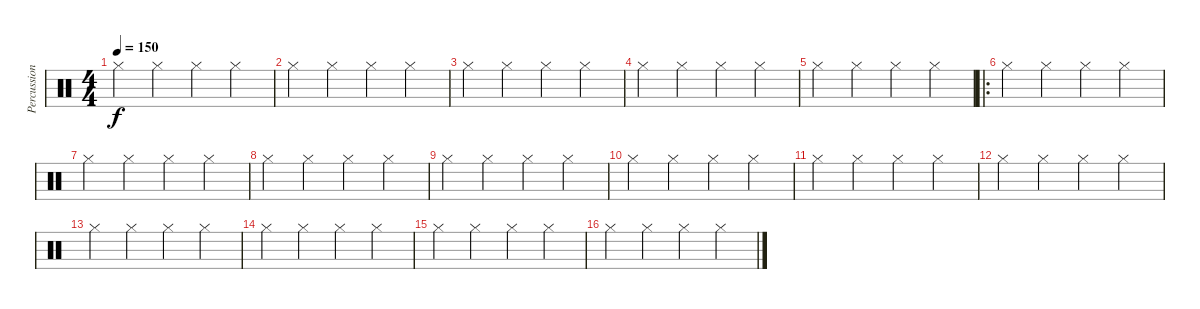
\track ("Percussioni" "Percussion") {instrument percussion}
\staff {score}
\articulation defaults
\ts (4 4)
\tempo 150
\clef neutral
\ks c "Hi-Hat (closed)".4{dy f} "Hi-Hat (closed)".4 "Hi-Hat (closed)".4 "Hi-Hat (closed)".4
|
"Hi-Hat (closed)".4 "Hi-Hat (closed)".4 "Hi-Hat (closed)".4 "Hi-Hat (closed)".4 |
"Hi-Hat (closed)".4 "Hi-Hat (closed)".4 "Hi-Hat (closed)".4 "Hi-Hat (closed)".4 |
"Hi-Hat (closed)".4 "Hi-Hat (closed)".4 "Hi-Hat (closed)".4 "Hi-Hat (closed)".4 |
"Hi-Hat (closed)".4 "Hi-Hat (closed)".4 "Hi-Hat (closed)".4 "Hi-Hat (closed)".4 |
\ro "Hi-Hat (closed)".4 "Hi-Hat (closed)".4 "Hi-Hat (closed)".4 "Hi-Hat (closed)".4
|
"Hi-Hat (closed)".4 "Hi-Hat (closed)".4 "Hi-Hat (closed)".4 "Hi-Hat (closed)".4 |
"Hi-Hat (closed)".4 "Hi-Hat (closed)".4 "Hi-Hat (closed)".4 "Hi-Hat (closed)".4 |
"Hi-Hat (closed)".4 "Hi-Hat (closed)".4 "Hi-Hat (closed)".4 "Hi-Hat (closed)".4 |
"Hi-Hat (closed)".4 "Hi-Hat (closed)".4 "Hi-Hat (closed)".4 "Hi-Hat (closed)".4 |
"Hi-Hat (closed)".4 "Hi-Hat (closed)".4 "Hi-Hat (closed)".4 "Hi-Hat (closed)".4 |
"Hi-Hat (closed)".4 "Hi-Hat (closed)".4 "Hi-Hat (closed)".4 "Hi-Hat (closed)".4 |
"Hi-Hat (closed)".4 "Hi-Hat (closed)".4 "Hi-Hat (closed)".4 "Hi-Hat (closed)".4 |
"Hi-Hat (closed)".4 "Hi-Hat (closed)".4 "Hi-Hat (closed)".4 "Hi-Hat (closed)".4 |
"Hi-Hat (closed)".4 "Hi-Hat (closed)".4 "Hi-Hat (closed)".4 "Hi-Hat (closed)".4 |
"Hi-Hat (closed)".4 "Hi-Hat (closed)".4 "Hi-Hat (closed)".4 "Hi-Hat (closed)".4
